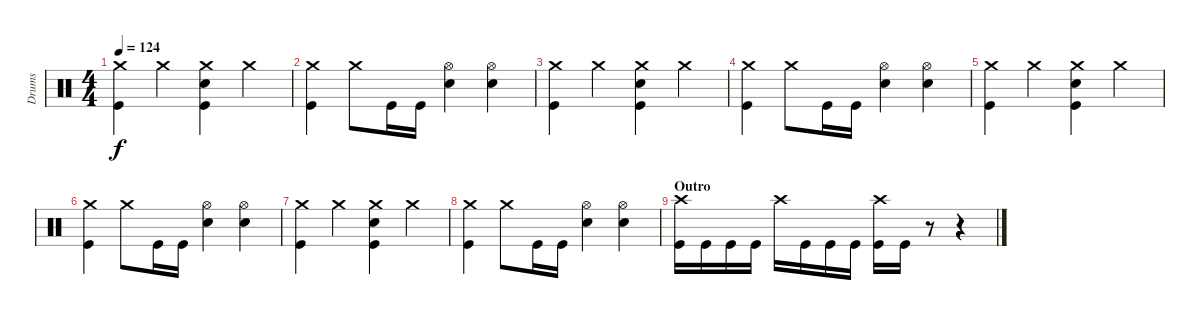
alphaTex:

\track ("Drums" "Drums") {instrument percussion}
\staff {score}
\articulation defaults
\ts (4 4)
\tempo 124
\clef neutral
\ks c
("Crash medium (hit)" "Kick (hit)").4{dy f} "Crash medium (hit)".4 ("Kick (hit)" "Crash medium (hit)" "Electric Snare (hit)").4 "Crash medium (hit)".4 |
("Crash medium (hit)" "Kick (hit)").4 "Crash medium (hit)".8 "Kick (hit)".16 "Kick (hit)".16 ("Hi-Hat (open)" "Electric Snare (hit)").4 ("Hi-Hat (open)" "Electric Snare (hit)").4 |
("Crash medium (hit)" "Kick (hit)").4 "Crash medium (hit)".4 ("Kick (hit)" "Crash medium (hit)" "Electric Snare (hit)").4 "Crash medium (hit)".4 |
("Crash medium (hit)" "Kick (hit)").4 "Crash medium (hit)".8 "Kick (hit)".16 "Kick (hit)".16 ("Hi-Hat (open)" "Electric Snare (hit)").4 ("Hi-Hat (open)" "Electric Snare (hit)").4 |
("Crash medium (hit)" "Kick (hit)").4 "Crash medium (hit)".4 ("Kick (hit)" "Crash medium (hit)" "Electric Snare (hit)").4 "Crash medium (hit)".4 |
("Crash medium (hit)" "Kick (hit)").4 "Crash medium (hit)".8 "Kick (hit)".16 "Kick (hit)".16 ("Hi-Hat (open)" "Electric Snare (hit)").4 ("Hi-Hat (open)" "Electric Snare (hit)").4 |
("Crash medium (hit)" "Kick (hit)").4 "Crash medium (hit)".4 ("Kick (hit)" "Crash medium (hit)" "Electric Snare (hit)").4 "Crash medium (hit)".4 |
("Crash medium (hit)" "Kick (hit)").4 "Crash medium (hit)".8 "Kick (hit)".16 "Kick (hit)".16 ("Hi-Hat (open)" "Electric Snare (hit)").4 ("Hi-Hat (open)" "Electric Snare (hit)").4 |
\section ("" "Outro")
("Crash high (hit)" "Kick (hit)").16 "Kick (hit)".16 "Kick (hit)".16 "Kick (hit)".16 "Crash high (hit)".16 "Kick (hit)".16 "Kick (hit)".16 "Kick (hit)".16 ("Crash high (hit)" "Kick (hit)").16 "Kick (hit)".16 r.8 r.4
